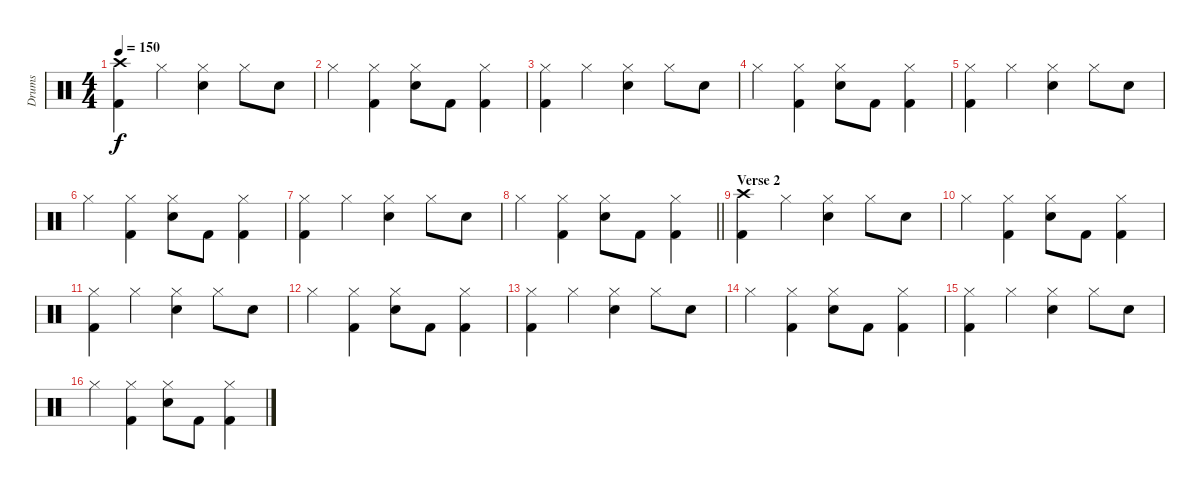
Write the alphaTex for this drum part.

\track ("Drums" "Drums") {instrument percussion}
\staff {score}
\articulation defaults
\ts (4 4)
\tempo 150
\clef neutral
\ks c
("Crash high (hit)" "Kick (hit) 2").4{dy f} "Hi-Hat (closed)".4 ("Hi-Hat (closed)" "Electric Snare (hit)").4 "Hi-Hat (closed)".8 "Electric Snare (hit)".8 |
"Hi-Hat (closed)".4 ("Hi-Hat (closed)" "Kick (hit) 2").4 ("Hi-Hat (closed)" "Electric Snare (hit)").8 "Kick (hit) 2".8 ("Hi-Hat (closed)" "Kick (hit) 2").4 |
("Hi-Hat (closed)" "Kick (hit) 2").4 "Hi-Hat (closed)".4 ("Hi-Hat (closed)" "Electric Snare (hit)").4 "Hi-Hat (closed)".8 "Electric Snare (hit)".8 |
"Hi-Hat (closed)".4 ("Hi-Hat (closed)" "Kick (hit) 2").4 ("Hi-Hat (closed)" "Electric Snare (hit)").8 "Kick (hit) 2".8 ("Hi-Hat (closed)" "Kick (hit) 2").4 |
("Hi-Hat (closed)" "Kick (hit) 2").4 "Hi-Hat (closed)".4 ("Hi-Hat (closed)" "Electric Snare (hit)").4 "Hi-Hat (closed)".8 "Electric Snare (hit)".8 |
"Hi-Hat (closed)".4 ("Hi-Hat (closed)" "Kick (hit) 2").4 ("Hi-Hat (closed)" "Electric Snare (hit)").8 "Kick (hit) 2".8 ("Hi-Hat (closed)" "Kick (hit) 2").4 |
("Hi-Hat (closed)" "Kick (hit) 2").4 "Hi-Hat (closed)".4 ("Hi-Hat (closed)" "Electric Snare (hit)").4 "Hi-Hat (closed)".8 "Electric Snare (hit)".8 |
\barLineRight lightlight "Hi-Hat (closed)".4
("Hi-Hat (closed)" "Kick (hit) 2").4 ("Hi-Hat (closed)" "Electric Snare (hit)").8 "Kick (hit) 2".8 ("Hi-Hat (closed)" "Kick (hit) 2").4 |
\section ("" "Verse 2")
("Crash high (hit)" "Kick (hit) 2").4 "Hi-Hat (closed)".4 ("Hi-Hat (closed)" "Electric Snare (hit)").4 "Hi-Hat (closed)".8 "Electric Snare (hit)".8 |
"Hi-Hat (closed)".4 ("Hi-Hat (closed)" "Kick (hit) 2").4 ("Hi-Hat (closed)" "Electric Snare (hit)").8 "Kick (hit) 2".8 ("Hi-Hat (closed)" "Kick (hit) 2").4 |
("Hi-Hat (closed)" "Kick (hit) 2").4 "Hi-Hat (closed)".4 ("Hi-Hat (closed)" "Electric Snare (hit)").4 "Hi-Hat (closed)".8 "Electric Snare (hit)".8 |
"Hi-Hat (closed)".4 ("Hi-Hat (closed)" "Kick (hit) 2").4 ("Hi-Hat (closed)" "Electric Snare (hit)").8 "Kick (hit) 2".8 ("Hi-Hat (closed)" "Kick (hit) 2").4 |
("Hi-Hat (closed)" "Kick (hit) 2").4 "Hi-Hat (closed)".4 ("Hi-Hat (closed)" "Electric Snare (hit)").4 "Hi-Hat (closed)".8 "Electric Snare (hit)".8 |
"Hi-Hat (closed)".4 ("Hi-Hat (closed)" "Kick (hit) 2").4 ("Hi-Hat (closed)" "Electric Snare (hit)").8 "Kick (hit) 2".8 ("Hi-Hat (closed)" "Kick (hit) 2").4 |
("Hi-Hat (closed)" "Kick (hit) 2").4 "Hi-Hat (closed)".4 ("Hi-Hat (closed)" "Electric Snare (hit)").4 "Hi-Hat (closed)".8 "Electric Snare (hit)".8 |
"Hi-Hat (closed)".4 ("Hi-Hat (closed)" "Kick (hit) 2").4 ("Hi-Hat (closed)" "Electric Snare (hit)").8 "Kick (hit) 2".8 ("Hi-Hat (closed)" "Kick (hit) 2").4
